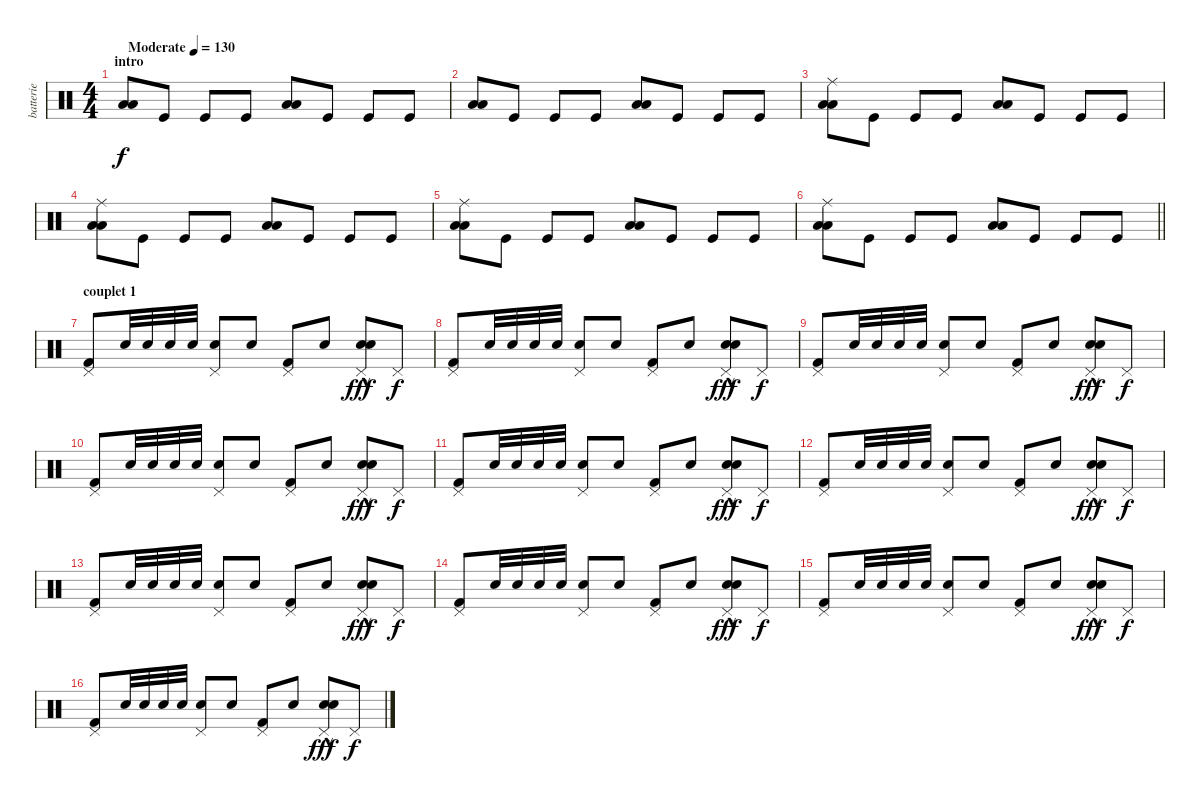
\track ("batterie" "batterie") {instrument percussion}
\staff {score}
\articulation defaults
\ts (4 4)
\section ("" "intro")
\tempo (130 "Moderate")
\clef neutral
\ks c
("Low Floor Tom (hit)" "Low Floor Tom (hit)").8{bd 240 dy f} "Kick (hit)".8 "Kick (hit)".8 "Kick (hit)".8 ("Low Floor Tom (hit)" "Low Floor Tom (hit)").8 "Kick (hit)".8 "Kick (hit)".8 "Kick (hit)".8 |
("Low Floor Tom (hit)" "Low Floor Tom (hit)").8{bd 240} "Kick (hit)".8 "Kick (hit)".8 "Kick (hit)".8 ("Low Floor Tom (hit)" "Low Floor Tom (hit)").8 "Kick (hit)".8 "Kick (hit)".8 "Kick (hit)".8 |
("Ride (middle)" "Low Floor Tom (hit)" "Low Floor Tom (hit)").8{bd 240} "Kick (hit)".8 "Kick (hit)".8 "Kick (hit)".8 ("Low Floor Tom (hit)" "Low Floor Tom (hit)").8 "Kick (hit)".8 "Kick (hit)".8 "Kick (hit)".8 |
("Ride (middle)" "Low Floor Tom (hit)" "Low Floor Tom (hit)").8{bd 240} "Kick (hit)".8 "Kick (hit)".8 "Kick (hit)".8 ("Low Floor Tom (hit)" "Low Floor Tom (hit)").8 "Kick (hit)".8 "Kick (hit)".8 "Kick (hit)".8 |
("Ride (middle)" "Low Floor Tom (hit)" "Low Floor Tom (hit)").8{bd 240} "Kick (hit)".8 "Kick (hit)".8 "Kick (hit)".8 ("Low Floor Tom (hit)" "Low Floor Tom (hit)").8 "Kick (hit)".8 "Kick (hit)".8 "Kick (hit)".8 |
\barLineRight lightlight
("Ride (middle)" "Low Floor Tom (hit)" "Low Floor Tom (hit)").8{bd 240} "Kick (hit)".8 "Kick (hit)".8 "Kick (hit)".8 ("Low Floor Tom (hit)" "Low Floor Tom (hit)").8 "Kick (hit)".8 "Kick (hit)".8 "Kick (hit)".8 |
\section ("" "couplet 1")
("Pedal Hi-Hat (hit)" "Kick (hit) 2").8 "Snare (hit) 2".32 "Snare (hit) 2".32 "Snare (hit) 2".32 "Snare (hit) 2".32 ("Pedal Hi-Hat (hit)" "Snare (hit) 2").8 "Snare (hit) 2".8 ("Pedal Hi-Hat (hit)" "Kick (hit) 2").8 "Snare (hit) 2".8 ("Pedal Hi-Hat (hit)" "Snare (hit) 2"{hac} "Snare (hit) 2"{hac}).8{dy fff} "Pedal Hi-Hat (hit)".8{dy f} |
("Pedal Hi-Hat (hit)" "Kick (hit) 2").8 "Snare (hit) 2".32 "Snare (hit) 2".32 "Snare (hit) 2".32 "Snare (hit) 2".32 ("Pedal Hi-Hat (hit)" "Snare (hit) 2").8 "Snare (hit) 2".8 ("Pedal Hi-Hat (hit)" "Kick (hit) 2").8 "Snare (hit) 2".8 ("Pedal Hi-Hat (hit)" "Snare (hit) 2"{hac} "Snare (hit) 2"{hac}).8{dy fff} "Pedal Hi-Hat (hit)".8{dy f} |
("Pedal Hi-Hat (hit)" "Kick (hit) 2").8 "Snare (hit) 2".32 "Snare (hit) 2".32 "Snare (hit) 2".32 "Snare (hit) 2".32 ("Pedal Hi-Hat (hit)" "Snare (hit) 2").8 "Snare (hit) 2".8 ("Pedal Hi-Hat (hit)" "Kick (hit) 2").8 "Snare (hit) 2".8 ("Pedal Hi-Hat (hit)" "Snare (hit) 2"{hac} "Snare (hit) 2"{hac}).8{dy fff} "Pedal Hi-Hat (hit)".8{dy f} |
("Pedal Hi-Hat (hit)" "Kick (hit) 2").8 "Snare (hit) 2".32 "Snare (hit) 2".32 "Snare (hit) 2".32 "Snare (hit) 2".32 ("Pedal Hi-Hat (hit)" "Snare (hit) 2").8 "Snare (hit) 2".8 ("Pedal Hi-Hat (hit)" "Kick (hit) 2").8 "Snare (hit) 2".8 ("Pedal Hi-Hat (hit)" "Snare (hit) 2"{hac} "Snare (hit) 2"{hac}).8{dy fff} "Pedal Hi-Hat (hit)".8{dy f} |
("Pedal Hi-Hat (hit)" "Kick (hit) 2").8 "Snare (hit) 2".32 "Snare (hit) 2".32 "Snare (hit) 2".32 "Snare (hit) 2".32 ("Pedal Hi-Hat (hit)" "Snare (hit) 2").8 "Snare (hit) 2".8 ("Pedal Hi-Hat (hit)" "Kick (hit) 2").8 "Snare (hit) 2".8 ("Pedal Hi-Hat (hit)" "Snare (hit) 2"{hac} "Snare (hit) 2"{hac}).8{dy fff} "Pedal Hi-Hat (hit)".8{dy f} |
("Pedal Hi-Hat (hit)" "Kick (hit) 2").8 "Snare (hit) 2".32 "Snare (hit) 2".32 "Snare (hit) 2".32 "Snare (hit) 2".32 ("Pedal Hi-Hat (hit)" "Snare (hit) 2").8 "Snare (hit) 2".8 ("Pedal Hi-Hat (hit)" "Kick (hit) 2").8 "Snare (hit) 2".8 ("Pedal Hi-Hat (hit)" "Snare (hit) 2"{hac} "Snare (hit) 2"{hac}).8{dy fff} "Pedal Hi-Hat (hit)".8{dy f} |
("Pedal Hi-Hat (hit)" "Kick (hit) 2").8 "Snare (hit) 2".32 "Snare (hit) 2".32 "Snare (hit) 2".32 "Snare (hit) 2".32 ("Pedal Hi-Hat (hit)" "Snare (hit) 2").8 "Snare (hit) 2".8 ("Pedal Hi-Hat (hit)" "Kick (hit) 2").8 "Snare (hit) 2".8 ("Pedal Hi-Hat (hit)" "Snare (hit) 2"{hac} "Snare (hit) 2"{hac}).8{dy fff} "Pedal Hi-Hat (hit)".8{dy f} |
("Pedal Hi-Hat (hit)" "Kick (hit) 2").8 "Snare (hit) 2".32 "Snare (hit) 2".32 "Snare (hit) 2".32 "Snare (hit) 2".32 ("Pedal Hi-Hat (hit)" "Snare (hit) 2").8 "Snare (hit) 2".8 ("Pedal Hi-Hat (hit)" "Kick (hit) 2").8 "Snare (hit) 2".8 ("Pedal Hi-Hat (hit)" "Snare (hit) 2"{hac} "Snare (hit) 2"{hac}).8{dy fff} "Pedal Hi-Hat (hit)".8{dy f} |
("Pedal Hi-Hat (hit)" "Kick (hit) 2").8 "Snare (hit) 2".32 "Snare (hit) 2".32 "Snare (hit) 2".32 "Snare (hit) 2".32 ("Pedal Hi-Hat (hit)" "Snare (hit) 2").8 "Snare (hit) 2".8 ("Pedal Hi-Hat (hit)" "Kick (hit) 2").8 "Snare (hit) 2".8 ("Pedal Hi-Hat (hit)" "Snare (hit) 2"{hac} "Snare (hit) 2"{hac}).8{dy fff} "Pedal Hi-Hat (hit)".8{dy f} |
("Pedal Hi-Hat (hit)" "Kick (hit) 2").8 "Snare (hit) 2".32 "Snare (hit) 2".32 "Snare (hit) 2".32 "Snare (hit) 2".32 ("Pedal Hi-Hat (hit)" "Snare (hit) 2").8 "Snare (hit) 2".8 ("Pedal Hi-Hat (hit)" "Kick (hit) 2").8 "Snare (hit) 2".8 ("Pedal Hi-Hat (hit)" "Snare (hit) 2"{hac} "Snare (hit) 2"{hac}).8{dy fff} "Pedal Hi-Hat (hit)".8{dy f}
